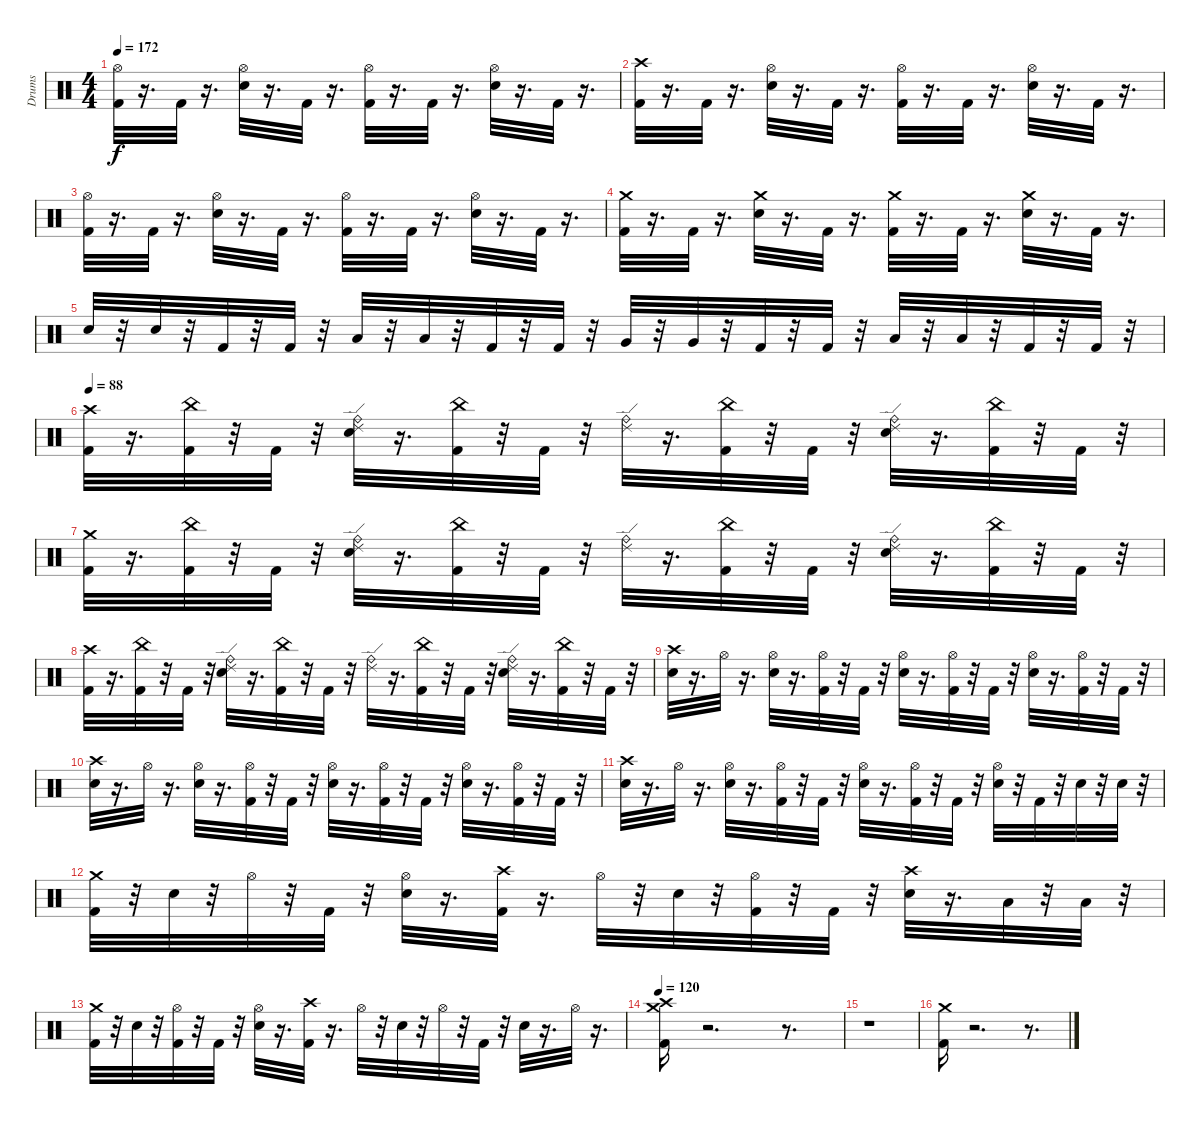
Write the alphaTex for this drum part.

\track ("Drums" "Drums") {instrument percussion}
\staff {score}
\articulation defaults
\ts (4 4)
\tempo 172
\clef neutral
\ks c
("Hi-Hat (open)" "Kick (hit) 2").32{dy f} r.16{d} "Kick (hit) 2".32 r.16{d} ("Snare (hit) 2" "Hi-Hat (open)").32 r.16{d} "Kick (hit) 2".32 r.16{d} ("Kick (hit) 2" "Hi-Hat (open)").32 r.16{d} "Kick (hit) 2".32 r.16{d} ("Snare (hit) 2" "Hi-Hat (open)").32 r.16{d} "Kick (hit) 2".32 r.16{d} |
("Crash high (hit)" "Kick (hit) 2").32 r.16{d} "Kick (hit) 2".32 r.16{d} ("Snare (hit) 2" "Hi-Hat (open)").32 r.16{d} "Kick (hit) 2".32 r.16{d} ("Kick (hit) 2" "Hi-Hat (open)").32 r.16{d} "Kick (hit) 2".32 r.16{d} ("Snare (hit) 2" "Hi-Hat (open)").32 r.16{d} "Kick (hit) 2".32 r.16{d} |
("Hi-Hat (open)" "Kick (hit) 2").32 r.16{d} "Kick (hit) 2".32 r.16{d} ("Snare (hit) 2" "Hi-Hat (open)").32 r.16{d} "Kick (hit) 2".32 r.16{d} ("Kick (hit) 2" "Hi-Hat (open)").32 r.16{d} "Kick (hit) 2".32 r.16{d} ("Snare (hit) 2" "Hi-Hat (open)").32 r.16{d} "Kick (hit) 2".32 r.16{d} |
("Crash medium (hit)" "Kick (hit) 2").32 r.16{d} "Kick (hit) 2".32 r.16{d} ("Crash medium (hit)" "Snare (hit) 2").32 r.16{d} "Kick (hit) 2".32 r.16{d} ("Crash medium (hit)" "Kick (hit) 2").32 r.16{d} "Kick (hit) 2".32 r.16{d} ("Crash medium (hit)" "Snare (hit) 2").32 r.16{d} "Kick (hit) 2".32 r.16{d} |
"Snare (hit) 2".32 r.32 "Snare (hit) 2".32 r.32 "Kick (hit) 2".32 r.32 "Kick (hit) 2".32 r.32 "Low Tom (hit)".32 r.32 "Low Tom (hit)".32 r.32 "Kick (hit) 2".32 r.32 "Kick (hit) 2".32 r.32 "Very Low Tom (hit)".32 r.32 "Very Low Tom (hit)".32 r.32 "Kick (hit) 2".32 r.32 "Kick (hit) 2".32 r.32 "Low Floor Tom (hit)".32 r.32 "Low Floor Tom (hit)".32 r.32 "Kick (hit) 2".32 r.32 "Kick (hit) 2".32 r.32 |
\tempo 88
("Crash high (hit)" "Kick (hit) 2").32 r.16{d} ("China (hit)" "Kick (hit) 2").32 r.32 "Kick (hit) 2".32 r.32 ("Ride (edge) 2" "Ride (bell)" "Snare (hit) 2").32 r.16{d} ("China (hit)" "Kick (hit) 2").32 r.32 "Kick (hit) 2".32 r.32 ("Ride (bell)" "Ride (edge) 2").32 r.16{d} ("China (hit)" "Kick (hit) 2").32 r.32 "Kick (hit) 2".32 r.32 ("Ride (bell)" "Ride (edge) 2" "Snare (hit) 2").32 r.16{d} ("China (hit)" "Kick (hit) 2").32 r.32 "Kick (hit) 2".32 r.32 |
("Crash medium (hit)" "Kick (hit) 2").32 r.16{d} ("Kick (hit) 2" "China (hit)").32 r.32 "Kick (hit) 2".32 r.32 ("Snare (hit) 2" "Ride (bell)" "Ride (edge) 2").32 r.16{d} ("Kick (hit) 2" "China (hit)").32 r.32 "Kick (hit) 2".32 r.32 ("Ride (bell)" "Ride (edge) 2").32 r.16{d} ("Kick (hit) 2" "China (hit)").32 r.32 "Kick (hit) 2".32 r.32 ("Snare (hit) 2" "Ride (bell)" "Ride (edge) 2").32 r.16{d} ("Kick (hit) 2" "China (hit)").32 r.32 "Kick (hit) 2".32 r.32 |
("Crash high (hit)" "Kick (hit) 2").32 r.16{d} ("China (hit)" "Kick (hit) 2").32 r.32 "Kick (hit) 2".32 r.32 ("Ride (edge) 2" "Ride (bell)" "Snare (hit) 2").32 r.16{d} ("China (hit)" "Kick (hit) 2").32 r.32 "Kick (hit) 2".32 r.32 ("Ride (bell)" "Ride (edge) 2").32 r.16{d} ("China (hit)" "Kick (hit) 2").32 r.32 "Kick (hit) 2".32 r.32 ("Ride (bell)" "Ride (edge) 2" "Snare (hit) 2").32 r.16{d} ("China (hit)" "Kick (hit) 2").32 r.32 "Kick (hit) 2".32 r.32 |
("Crash high (hit)" "Snare (hit) 2").32 r.16{d} "Hi-Hat (open)".32 r.16{d} ("Hi-Hat (open)" "Snare (hit) 2").32 r.16{d} ("Hi-Hat (open)" "Kick (hit) 2").32 r.32 "Kick (hit) 2".32 r.32 ("Hi-Hat (open)" "Snare (hit) 2").32 r.16{d} ("Hi-Hat (open)" "Kick (hit) 2").32 r.32 "Kick (hit) 2".32 r.32 ("Hi-Hat (open)" "Snare (hit) 2").32 r.16{d} ("Hi-Hat (open)" "Kick (hit) 2").32 r.32 "Kick (hit) 2".32 r.32 |
("Crash high (hit)" "Snare (hit) 2").32 r.16{d} "Hi-Hat (open)".32 r.16{d} ("Hi-Hat (open)" "Snare (hit) 2").32 r.16{d} ("Hi-Hat (open)" "Kick (hit) 2").32 r.32 "Kick (hit) 2".32 r.32 ("Hi-Hat (open)" "Snare (hit) 2").32 r.16{d} ("Hi-Hat (open)" "Kick (hit) 2").32 r.32 "Kick (hit) 2".32 r.32 ("Hi-Hat (open)" "Snare (hit) 2").32 r.16{d} ("Hi-Hat (open)" "Kick (hit) 2").32 r.32 "Kick (hit) 2".32 r.32 |
("Crash high (hit)" "Snare (hit) 2").32 r.16{d} "Hi-Hat (open)".32 r.16{d} ("Hi-Hat (open)" "Snare (hit) 2").32 r.16{d} ("Hi-Hat (open)" "Kick (hit) 2").32 r.32 "Kick (hit) 2".32 r.32 ("Hi-Hat (open)" "Snare (hit) 2").32 r.16{d} ("Hi-Hat (open)" "Kick (hit) 2").32 r.32 "Kick (hit) 2".32 r.32 ("Hi-Hat (open)" "Snare (hit) 2").32 r.32 "Kick (hit) 2".32 r.32 "Snare (hit) 2".32 r.32 "Snare (hit) 2".32 r.32 |
("Crash medium (hit)" "Kick (hit) 2").32 r.32 "Snare (hit) 2".32 r.32 "Hi-Hat (open)".32 r.32 "Kick (hit) 2".32 r.32 ("Hi-Hat (open)" "Snare (hit) 2").32 r.16{d} ("Kick (hit) 2" "Crash high (hit)").32 r.16{d} "Hi-Hat (open)".32 r.32 "Snare (hit) 2".32 r.32 ("Hi-Hat (open)" "Kick (hit) 2").32 r.32 "Kick (hit) 2".32 r.32 ("Crash high (hit)" "Snare (hit) 2").32 r.16{d} "Low Tom (hit)".32 r.32 "Low Tom (hit)".32 r.32 |
("Crash medium (hit)" "Kick (hit) 2").32 r.32 "Snare (hit) 2".32 r.32 ("Kick (hit) 2" "Hi-Hat (open)").32 r.32 "Kick (hit) 2".32 r.32 ("Hi-Hat (open)" "Snare (hit) 2").32 r.16{d} ("Kick (hit) 2" "Crash high (hit)").32 r.16{d} "Hi-Hat (open)".32 r.32 "Snare (hit) 2".32 r.32 "Hi-Hat (open)".32 r.32 "Kick (hit) 2".32 r.32 "Snare (hit) 2".32 r.16{d} "Hi-Hat (open)".32 r.16{d} |
\tempo 120
("Crash medium (hit)" "Crash high (hit)" "Kick (hit) 2").16 r.2{d} r.8{d} |
r.1 |
("Crash medium (hit)" "Kick (hit) 2").16 r.2{d} r.8{d}
